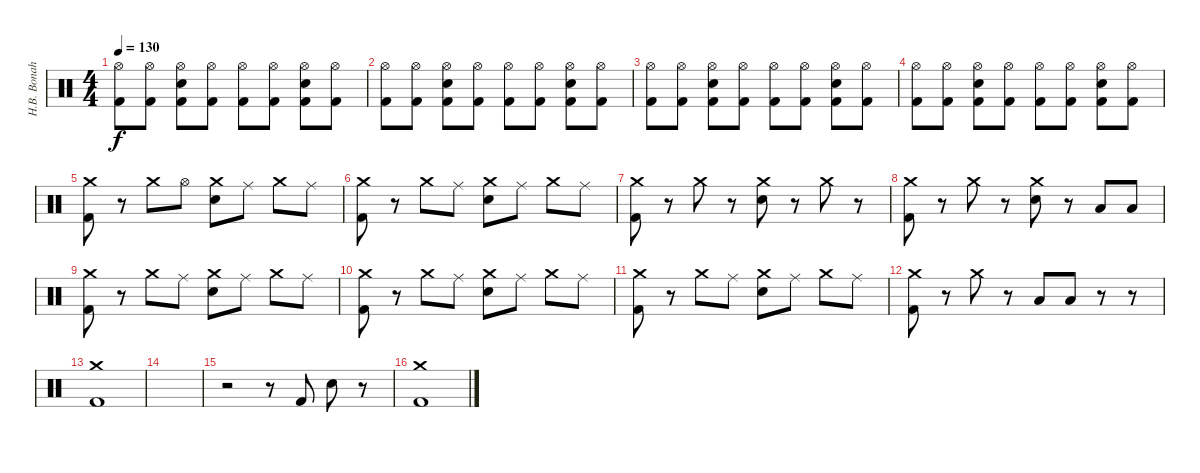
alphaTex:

\track ("H.B. Bonah" "H.B. Bonah") {instrument percussion}
\staff {score}
\articulation defaults
\ts (4 4)
\tempo 130
\clef neutral
\ks c
("Hi-Hat (open)" "Kick (hit) 2").8{dy f} ("Hi-Hat (open)" "Kick (hit) 2").8 ("Hi-Hat (open)" "Electric Snare (hit)" "Kick (hit) 2").8 ("Hi-Hat (open)" "Kick (hit) 2").8 ("Hi-Hat (open)" "Kick (hit) 2").8 ("Hi-Hat (open)" "Kick (hit) 2").8 ("Hi-Hat (open)" "Electric Snare (hit)" "Kick (hit) 2").8 ("Hi-Hat (open)" "Kick (hit) 2").8 |
("Hi-Hat (open)" "Kick (hit) 2").8 ("Hi-Hat (open)" "Kick (hit) 2").8 ("Hi-Hat (open)" "Electric Snare (hit)" "Kick (hit) 2").8 ("Hi-Hat (open)" "Kick (hit) 2").8 ("Hi-Hat (open)" "Kick (hit) 2").8 ("Hi-Hat (open)" "Kick (hit) 2").8 ("Hi-Hat (open)" "Electric Snare (hit)" "Kick (hit) 2").8 ("Hi-Hat (open)" "Kick (hit) 2").8 |
("Hi-Hat (open)" "Kick (hit) 2").8 ("Hi-Hat (open)" "Kick (hit) 2").8 ("Hi-Hat (open)" "Electric Snare (hit)" "Kick (hit) 2").8 ("Hi-Hat (open)" "Kick (hit) 2").8 ("Hi-Hat (open)" "Kick (hit) 2").8 ("Hi-Hat (open)" "Kick (hit) 2").8 ("Hi-Hat (open)" "Electric Snare (hit)" "Kick (hit) 2").8 ("Hi-Hat (open)" "Kick (hit) 2").8 |
("Hi-Hat (open)" "Kick (hit) 2").8 ("Hi-Hat (open)" "Kick (hit) 2").8 ("Hi-Hat (open)" "Electric Snare (hit)" "Kick (hit) 2").8 ("Hi-Hat (open)" "Kick (hit) 2").8 ("Hi-Hat (open)" "Kick (hit) 2").8 ("Hi-Hat (open)" "Kick (hit) 2").8 ("Hi-Hat (open)" "Electric Snare (hit)" "Kick (hit) 2").8 ("Hi-Hat (open)" "Kick (hit) 2").8 |
("Crash medium (hit)" "Kick (hit) 2").8 r.8 "Crash medium (hit)".8 "Hi-Hat (open)".8 ("Crash medium (hit)" "Electric Snare (hit)").8 "Ride (middle)".8 "Crash medium (hit)".8 "Ride (middle)".8 |
("Crash medium (hit)" "Kick (hit) 2").8 r.8 "Crash medium (hit)".8 "Ride (middle)".8 ("Crash medium (hit)" "Electric Snare (hit)").8 "Ride (middle)".8 "Crash medium (hit)".8 "Ride (middle)".8 |
("Crash medium (hit)" "Kick (hit) 2").8 r.8 "Crash medium (hit)".8 r.8 ("Crash medium (hit)" "Electric Snare (hit)").8 r.8 "Crash medium (hit)".8 r.8 |
("Crash medium (hit)" "Kick (hit) 2").8 r.8 "Crash medium (hit)".8 r.8 ("Crash medium (hit)" "Electric Snare (hit)").8 r.8 "Low Floor Tom (hit)".8 "Low Floor Tom (hit)".8 |
("Crash medium (hit)" "Kick (hit) 2").8 r.8 "Crash medium (hit)".8 "Ride (middle)".8 ("Crash medium (hit)" "Electric Snare (hit)").8 "Ride (middle)".8 "Crash medium (hit)".8 "Ride (middle)".8 |
("Crash medium (hit)" "Kick (hit) 2").8 r.8 "Crash medium (hit)".8 "Ride (middle)".8 ("Crash medium (hit)" "Electric Snare (hit)").8 "Ride (middle)".8 "Crash medium (hit)".8 "Ride (middle)".8 |
("Crash medium (hit)" "Kick (hit) 2").8 r.8 "Crash medium (hit)".8 "Ride (middle)".8 ("Crash medium (hit)" "Electric Snare (hit)").8 "Ride (middle)".8 "Crash medium (hit)".8 "Ride (middle)".8 |
("Crash medium (hit)" "Kick (hit) 2").8 r.8 "Crash medium (hit)".8 r.8 "Low Floor Tom (hit)".8 "Low Floor Tom (hit)".8 r.8 r.8 |
("Crash medium (hit)" "Kick (hit) 2").1 |
|
r.2 r.8 "Kick (hit) 2".8 "Electric Snare (hit)".8 r.8 |
("Crash medium (hit)" "Kick (hit) 2").1
